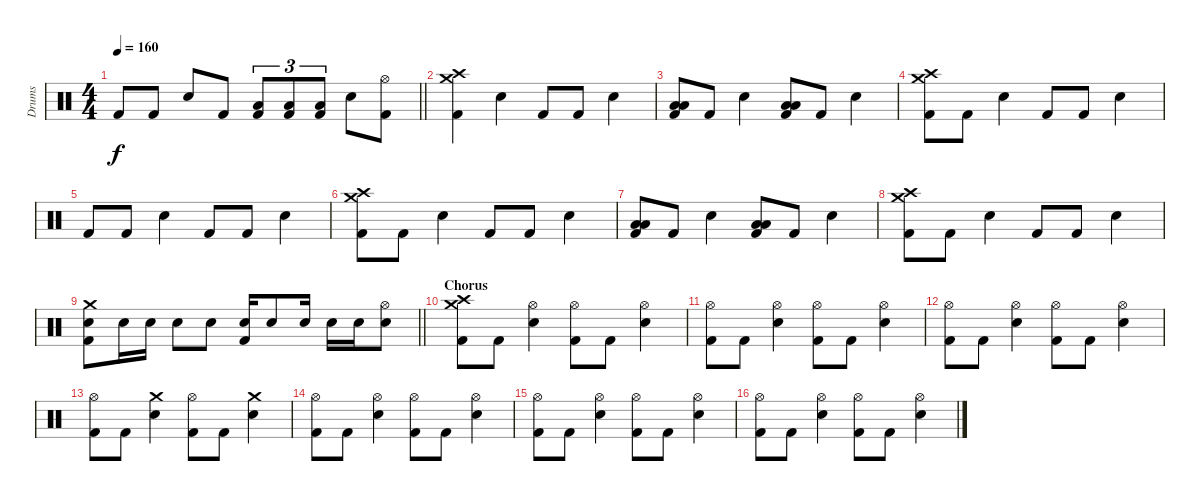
\track ("Drums" "Drums") {instrument percussion}
\staff {score}
\articulation defaults
\ts (4 4)
\tempo 160
\clef neutral
\barLineRight lightlight
\ks c "Kick (hit) 2".8{dy f} "Kick (hit) 2".8 "Snare (hit) 2".8 "Kick (hit) 2".8
("Low Floor Tom (hit)" "Kick (hit) 2").8{tu (3 2)} ("Low Floor Tom (hit)" "Kick (hit) 2").8{tu (3 2)} ("Low Floor Tom (hit)" "Kick (hit) 2").8{tu (3 2)} "Snare (hit) 2".8 ("Hi-Hat (open)" "Kick (hit) 2").8 |
("Crash medium (hit)" "Crash high (hit)" "Kick (hit) 2").4 "Snare (hit) 2".4 "Kick (hit) 2".8 "Kick (hit) 2".8 "Snare (hit) 2".4 |
("Low Floor Tom (hit)" "Low Tom (hit)" "Kick (hit) 2").8 "Kick (hit) 2".8 "Snare (hit) 2".4 ("Low Floor Tom (hit)" "Low Tom (hit)" "Kick (hit) 2").8 "Kick (hit) 2".8 "Snare (hit) 2".4 |
("Crash medium (hit)" "Crash high (hit)" "Kick (hit) 2").8 "Kick (hit) 2".8 "Snare (hit) 2".4 "Kick (hit) 2".8 "Kick (hit) 2".8 "Snare (hit) 2".4 |
"Kick (hit) 2".8 "Kick (hit) 2".8 "Snare (hit) 2".4 "Kick (hit) 2".8 "Kick (hit) 2".8 "Snare (hit) 2".4 |
("Crash medium (hit)" "Crash high (hit)" "Kick (hit) 2").8 "Kick (hit) 2".8 "Snare (hit) 2".4 "Kick (hit) 2".8 "Kick (hit) 2".8 "Snare (hit) 2".4 |
("Low Floor Tom (hit)" "Low Tom (hit)" "Kick (hit) 2").8 "Kick (hit) 2".8 "Snare (hit) 2".4 ("Low Floor Tom (hit)" "Low Tom (hit)" "Kick (hit) 2").8 "Kick (hit) 2".8 "Snare (hit) 2".4 |
("Crash medium (hit)" "Crash high (hit)" "Kick (hit) 2").8 "Kick (hit) 2".8 "Snare (hit) 2".4 "Kick (hit) 2".8 "Kick (hit) 2".8 "Snare (hit) 2".4 |
\barLineRight lightlight
("Crash medium (hit)" "Snare (hit) 2" "Kick (hit) 2").8 "Snare (hit) 2".16 "Snare (hit) 2".16 "Snare (hit) 2".8 "Snare (hit) 2".8 ("Snare (hit) 2" "Kick (hit) 2").16 "Snare (hit) 2".8 "Snare (hit) 2".16 "Snare (hit) 2".16 "Snare (hit) 2".16 ("Hi-Hat (open)" "Snare (hit) 2").8 |
\section ("" "Chorus")
("Crash medium (hit)" "Crash high (hit)" "Kick (hit) 2").8 "Kick (hit) 2".8 ("Hi-Hat (open)" "Snare (hit) 2").4 ("Hi-Hat (open)" "Kick (hit) 2").8 "Kick (hit) 2".8 ("Hi-Hat (open)" "Snare (hit) 2").4 |
("Hi-Hat (open)" "Kick (hit) 2").8 "Kick (hit) 2".8 ("Hi-Hat (open)" "Snare (hit) 2").4 ("Hi-Hat (open)" "Kick (hit) 2").8 "Kick (hit) 2".8 ("Hi-Hat (open)" "Snare (hit) 2").4 |
("Hi-Hat (open)" "Kick (hit) 2").8 "Kick (hit) 2".8 ("Hi-Hat (open)" "Snare (hit) 2").4 ("Hi-Hat (open)" "Kick (hit) 2").8 "Kick (hit) 2".8 ("Hi-Hat (open)" "Snare (hit) 2").4 |
("Hi-Hat (open)" "Kick (hit) 2").8 "Kick (hit) 2".8 ("Crash medium (hit)" "Snare (hit) 2").4 ("Hi-Hat (open)" "Kick (hit) 2").8 "Kick (hit) 2".8 ("Crash medium (hit)" "Snare (hit) 2").4 |
("Hi-Hat (open)" "Kick (hit) 2").8 "Kick (hit) 2".8 ("Hi-Hat (open)" "Snare (hit) 2").4 ("Hi-Hat (open)" "Kick (hit) 2").8 "Kick (hit) 2".8 ("Hi-Hat (open)" "Snare (hit) 2").4 |
("Hi-Hat (open)" "Kick (hit) 2").8 "Kick (hit) 2".8 ("Hi-Hat (open)" "Snare (hit) 2").4 ("Hi-Hat (open)" "Kick (hit) 2").8 "Kick (hit) 2".8 ("Hi-Hat (open)" "Snare (hit) 2").4 |
("Hi-Hat (open)" "Kick (hit) 2").8 "Kick (hit) 2".8 ("Hi-Hat (open)" "Snare (hit) 2").4 ("Hi-Hat (open)" "Kick (hit) 2").8 "Kick (hit) 2".8 ("Hi-Hat (open)" "Snare (hit) 2").4
